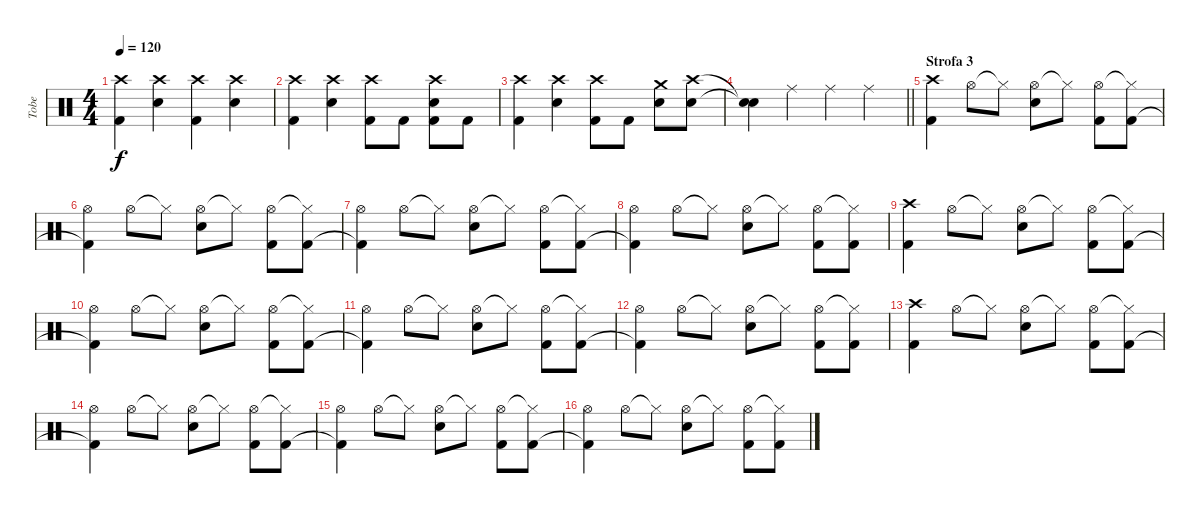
\track ("Tobe" "Tobe") {instrument percussion}
\staff {score}
\articulation defaults
\ts (4 4)
\tempo 120
\clef neutral
\ks c
("Crash high (hit)" "Kick (hit) 2").4{dy f} ("Crash high (hit)" "Snare (hit) 2").4 ("Crash high (hit)" "Kick (hit) 2").4 ("Crash high (hit)" "Snare (hit) 2").4 |
("Crash high (hit)" "Kick (hit) 2").4 ("Crash high (hit)" "Snare (hit) 2").4 ("Crash high (hit)" "Kick (hit) 2").8 "Kick (hit) 2".8 ("Crash high (hit)" "Snare (hit) 2" "Kick (hit) 2").8 "Kick (hit) 2".8 |
("Crash high (hit)" "Kick (hit) 2").4 ("Crash high (hit)" "Snare (hit) 2").4 ("Crash high (hit)" "Kick (hit) 2").8 "Kick (hit) 2".8 ("Crash medium (hit)" "Snare (hit) 2").8 ("Crash high (hit)" "Snare (hit) 2").8 |
\barLineRight lightlight
("Snare (hit)"{t} "Snare (hit)"{t}).4 "Ride (middle)".4 "Ride (middle)".4 "Ride (middle)".4 |
\section ("" "Strofa 3")
("Crash high (hit)" "Kick (hit) 2").4 "Hi-Hat (open)".8 "Hi-Hat (closed)"{t}.8 ("Hi-Hat (open)" "Snare (hit) 2").8 "Hi-Hat (closed)"{t}.8 ("Hi-Hat (open)" "Kick (hit) 2").8 ("Hi-Hat (closed)"{t} "Kick (hit) 2").8 |
("Hi-Hat (open)" "Kick (hit) 2"{t}).4 "Hi-Hat (open)".8 "Hi-Hat (closed)"{t}.8 ("Hi-Hat (open)" "Snare (hit) 2").8 "Hi-Hat (closed)"{t}.8 ("Hi-Hat (open)" "Kick (hit) 2").8 ("Hi-Hat (closed)"{t} "Kick (hit) 2").8 |
("Hi-Hat (open)" "Kick (hit) 2"{t}).4 "Hi-Hat (open)".8 "Hi-Hat (closed)"{t}.8 ("Hi-Hat (open)" "Snare (hit) 2").8 "Hi-Hat (closed)"{t}.8 ("Hi-Hat (open)" "Kick (hit) 2").8 ("Hi-Hat (closed)"{t} "Kick (hit) 2").8 |
("Hi-Hat (open)" "Kick (hit) 2"{t}).4 "Hi-Hat (open)".8 "Hi-Hat (closed)"{t}.8 ("Hi-Hat (open)" "Snare (hit) 2").8 "Hi-Hat (closed)"{t}.8 ("Hi-Hat (open)" "Kick (hit) 2").8 ("Hi-Hat (closed)"{t} "Kick (hit) 2").8 |
("Crash high (hit)" "Kick (hit) 2").4 "Hi-Hat (open)".8 "Hi-Hat (closed)"{t}.8 ("Hi-Hat (open)" "Snare (hit) 2").8 "Hi-Hat (closed)"{t}.8 ("Hi-Hat (open)" "Kick (hit) 2").8 ("Hi-Hat (closed)"{t} "Kick (hit) 2").8 |
("Hi-Hat (open)" "Kick (hit) 2"{t}).4 "Hi-Hat (open)".8 "Hi-Hat (closed)"{t}.8 ("Hi-Hat (open)" "Snare (hit) 2").8 "Hi-Hat (closed)"{t}.8 ("Hi-Hat (open)" "Kick (hit) 2").8 ("Hi-Hat (closed)"{t} "Kick (hit) 2").8 |
("Hi-Hat (open)" "Kick (hit) 2"{t}).4 "Hi-Hat (open)".8 "Hi-Hat (closed)"{t}.8 ("Hi-Hat (open)" "Snare (hit) 2").8 "Hi-Hat (closed)"{t}.8 ("Hi-Hat (open)" "Kick (hit) 2").8 ("Hi-Hat (closed)"{t} "Kick (hit) 2").8 |
("Hi-Hat (open)" "Kick (hit) 2"{t}).4 "Hi-Hat (open)".8 "Hi-Hat (closed)"{t}.8 ("Hi-Hat (open)" "Snare (hit) 2").8 "Hi-Hat (closed)"{t}.8 ("Hi-Hat (open)" "Kick (hit) 2").8 ("Hi-Hat (closed)"{t} "Kick (hit) 2").8 |
("Crash high (hit)" "Kick (hit) 2").4 "Hi-Hat (open)".8 "Hi-Hat (closed)"{t}.8 ("Hi-Hat (open)" "Snare (hit) 2").8 "Hi-Hat (closed)"{t}.8 ("Hi-Hat (open)" "Kick (hit) 2").8 ("Hi-Hat (closed)"{t} "Kick (hit) 2").8 |
("Hi-Hat (open)" "Kick (hit) 2"{t}).4 "Hi-Hat (open)".8 "Hi-Hat (closed)"{t}.8 ("Hi-Hat (open)" "Snare (hit) 2").8 "Hi-Hat (closed)"{t}.8 ("Hi-Hat (open)" "Kick (hit) 2").8 ("Hi-Hat (closed)"{t} "Kick (hit) 2").8 |
("Hi-Hat (open)" "Kick (hit) 2"{t}).4 "Hi-Hat (open)".8 "Hi-Hat (closed)"{t}.8 ("Hi-Hat (open)" "Snare (hit) 2").8 "Hi-Hat (closed)"{t}.8 ("Hi-Hat (open)" "Kick (hit) 2").8 ("Hi-Hat (closed)"{t} "Kick (hit) 2").8 |
("Hi-Hat (open)" "Kick (hit) 2"{t}).4 "Hi-Hat (open)".8 "Hi-Hat (closed)"{t}.8 ("Hi-Hat (open)" "Snare (hit) 2").8 "Hi-Hat (closed)"{t}.8 ("Hi-Hat (open)" "Kick (hit) 2").8 ("Hi-Hat (closed)"{t} "Kick (hit) 2").8
